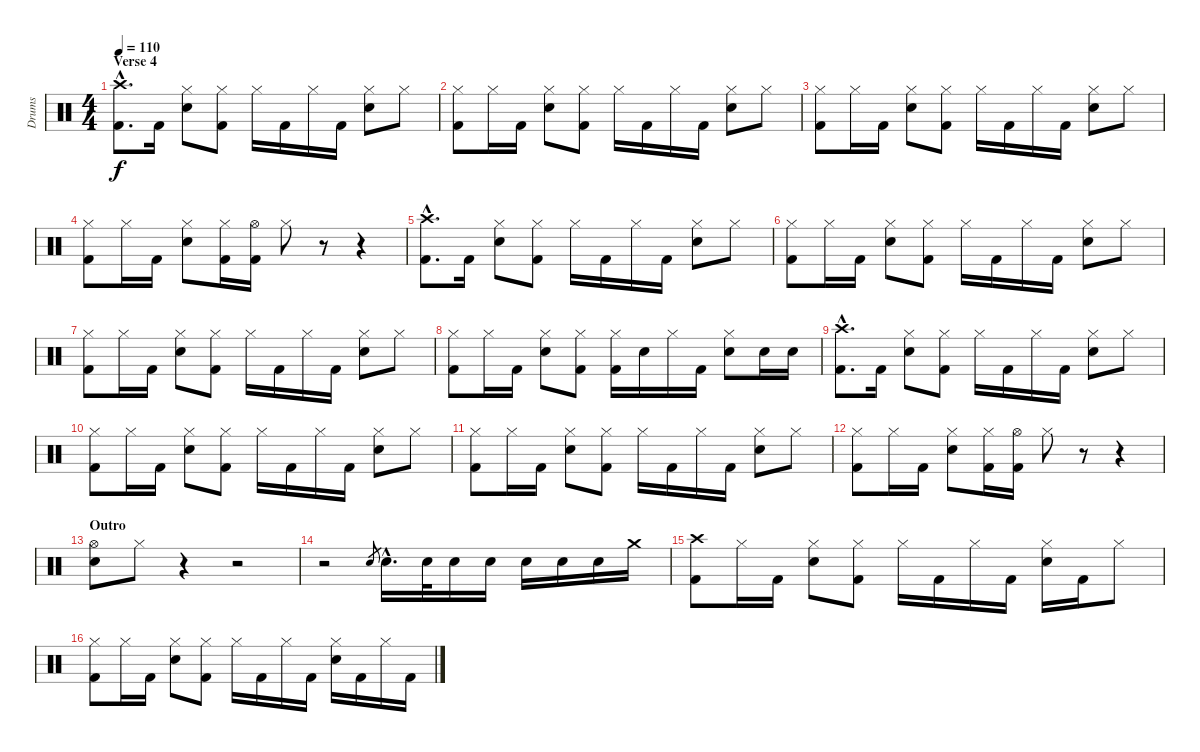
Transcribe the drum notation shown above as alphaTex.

\track ("Drums" "Drums") {instrument percussion}
\staff {score}
\articulation defaults
\ts (4 4)
\section ("" "Verse 4")
\tempo 110
\clef neutral
\ks c
("Crash high (hit)"{hac} "Kick (hit) 2"{hac}).8{d dy f} "Kick (hit) 2".16 ("Hi-Hat (closed)" "Electric Snare (hit)").8 ("Hi-Hat (closed)" "Kick (hit) 2").8 "Hi-Hat (closed)".16 "Kick (hit) 2".16 "Hi-Hat (closed)".16 "Kick (hit) 2".16 ("Hi-Hat (closed)" "Electric Snare (hit)").8 "Hi-Hat (closed)".8 |
("Hi-Hat (closed)" "Kick (hit) 2").8 "Hi-Hat (closed)".16 "Kick (hit) 2".16 ("Hi-Hat (closed)" "Electric Snare (hit)").8 ("Hi-Hat (closed)" "Kick (hit) 2").8 "Hi-Hat (closed)".16 "Kick (hit) 2".16 "Hi-Hat (closed)".16 "Kick (hit) 2".16 ("Hi-Hat (closed)" "Electric Snare (hit)").8 "Hi-Hat (closed)".8 |
("Hi-Hat (closed)" "Kick (hit) 2").8 "Hi-Hat (closed)".16 "Kick (hit) 2".16 ("Hi-Hat (closed)" "Electric Snare (hit)").8 ("Hi-Hat (closed)" "Kick (hit) 2").8 "Hi-Hat (closed)".16 "Kick (hit) 2".16 "Hi-Hat (closed)".16 "Kick (hit) 2".16 ("Hi-Hat (closed)" "Electric Snare (hit)").8 "Hi-Hat (closed)".8 |
("Hi-Hat (closed)" "Kick (hit) 2").8 "Hi-Hat (closed)".16 "Kick (hit) 2".16 ("Hi-Hat (closed)" "Electric Snare (hit)").8 ("Hi-Hat (closed)" "Kick (hit) 2").16 ("Hi-Hat (open)" "Kick (hit) 2").16 "Hi-Hat (closed)".8 r.8 r.4 |
("Crash high (hit)"{hac} "Kick (hit) 2"{hac}).8{d} "Kick (hit) 2".16 ("Hi-Hat (closed)" "Electric Snare (hit)").8 ("Hi-Hat (closed)" "Kick (hit) 2").8 "Hi-Hat (closed)".16 "Kick (hit) 2".16 "Hi-Hat (closed)".16 "Kick (hit) 2".16 ("Hi-Hat (closed)" "Electric Snare (hit)").8 "Hi-Hat (closed)".8 |
("Hi-Hat (closed)" "Kick (hit) 2").8 "Hi-Hat (closed)".16 "Kick (hit) 2".16 ("Hi-Hat (closed)" "Electric Snare (hit)").8 ("Hi-Hat (closed)" "Kick (hit) 2").8 "Hi-Hat (closed)".16 "Kick (hit) 2".16 "Hi-Hat (closed)".16 "Kick (hit) 2".16 ("Hi-Hat (closed)" "Electric Snare (hit)").8 "Hi-Hat (closed)".8 |
("Hi-Hat (closed)" "Kick (hit) 2").8 "Hi-Hat (closed)".16 "Kick (hit) 2".16 ("Hi-Hat (closed)" "Electric Snare (hit)").8 ("Hi-Hat (closed)" "Kick (hit) 2").8 "Hi-Hat (closed)".16 "Kick (hit) 2".16 "Hi-Hat (closed)".16 "Kick (hit) 2".16 ("Hi-Hat (closed)" "Electric Snare (hit)").8 "Hi-Hat (closed)".8 |
("Hi-Hat (closed)" "Kick (hit) 2").8 "Hi-Hat (closed)".16 "Kick (hit) 2".16 ("Hi-Hat (closed)" "Electric Snare (hit)").8 ("Hi-Hat (closed)" "Kick (hit) 2").8 ("Hi-Hat (closed)" "Kick (hit) 2").16 "Electric Snare (hit)".16 "Hi-Hat (closed)".16 "Kick (hit) 2".16 ("Hi-Hat (closed)" "Electric Snare (hit)").8 "Electric Snare (hit)".16 "Electric Snare (hit)".16 |
("Crash high (hit)"{hac} "Kick (hit) 2"{hac}).8{d} "Kick (hit) 2".16 ("Hi-Hat (closed)" "Electric Snare (hit)").8 ("Hi-Hat (closed)" "Kick (hit) 2").8 "Hi-Hat (closed)".16 "Kick (hit) 2".16 "Hi-Hat (closed)".16 "Kick (hit) 2".16 ("Hi-Hat (closed)" "Electric Snare (hit)").8 "Hi-Hat (closed)".8 |
("Hi-Hat (closed)" "Kick (hit) 2").8 "Hi-Hat (closed)".16 "Kick (hit) 2".16 ("Hi-Hat (closed)" "Electric Snare (hit)").8 ("Hi-Hat (closed)" "Kick (hit) 2").8 "Hi-Hat (closed)".16 "Kick (hit) 2".16 "Hi-Hat (closed)".16 "Kick (hit) 2".16 ("Hi-Hat (closed)" "Electric Snare (hit)").8 "Hi-Hat (closed)".8 |
("Hi-Hat (closed)" "Kick (hit) 2").8 "Hi-Hat (closed)".16 "Kick (hit) 2".16 ("Hi-Hat (closed)" "Electric Snare (hit)").8 ("Hi-Hat (closed)" "Kick (hit) 2").8 "Hi-Hat (closed)".16 "Kick (hit) 2".16 "Hi-Hat (closed)".16 "Kick (hit) 2".16 ("Hi-Hat (closed)" "Electric Snare (hit)").8 "Hi-Hat (closed)".8 |
("Hi-Hat (closed)" "Kick (hit) 2").8 "Hi-Hat (closed)".16 "Kick (hit) 2".16 ("Hi-Hat (closed)" "Electric Snare (hit)").8 ("Hi-Hat (closed)" "Kick (hit) 2").16 ("Hi-Hat (open)" "Kick (hit) 2").16 "Hi-Hat (closed)".8 r.8 r.4 |
\section ("" "Outro")
("Hi-Hat (open)" "Electric Snare (hit)").8 "Hi-Hat (closed)".8 r.4 r.2 |
r.2 "Electric Snare (hit)".8{gr} "Electric Snare (hit)"{hac}.16{d} "Electric Snare (hit)".32 "Electric Snare (hit)".16 "Electric Snare (hit)".16 "Electric Snare (hit)".16 "Electric Snare (hit)".16 "Electric Snare (hit)".16 "Crash medium (hit)".16 |
("Crash high (hit)" "Kick (hit) 2").8 "Hi-Hat (closed)".16 "Kick (hit) 2".16 ("Hi-Hat (closed)" "Electric Snare (hit)").8 ("Hi-Hat (closed)" "Kick (hit) 2").8 "Hi-Hat (closed)".16 "Kick (hit) 2".16 "Hi-Hat (closed)".16 "Kick (hit) 2".16 ("Hi-Hat (closed)" "Electric Snare (hit)").16 "Kick (hit) 2".16 "Hi-Hat (closed)".8 |
("Hi-Hat (closed)" "Kick (hit) 2").8 "Hi-Hat (closed)".16 "Kick (hit) 2".16 ("Hi-Hat (closed)" "Electric Snare (hit)").8 ("Hi-Hat (closed)" "Kick (hit) 2").8 "Hi-Hat (closed)".16 "Kick (hit) 2".16 "Hi-Hat (closed)".16 "Kick (hit) 2".16 ("Hi-Hat (closed)" "Electric Snare (hit)").16 "Kick (hit) 2".16 "Hi-Hat (closed)".16 "Kick (hit) 2".16
